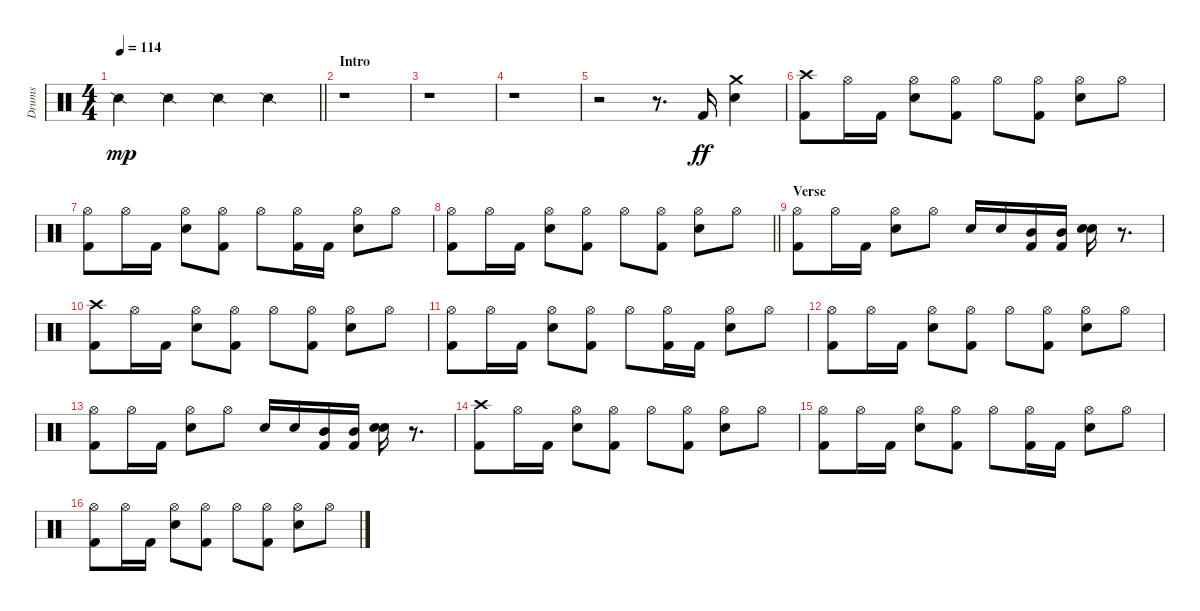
\track ("Drums               " "Drums     ") {instrument percussion}
\staff {score}
\articulation defaults
\ts (4 4)
\tempo 114
\clef neutral
\barLineRight lightlight
\ks c "Snare (side stick) 2".4{dy mp} "Snare (side stick) 2".4 "Snare (side stick) 2".4 "Snare (side stick) 2".4
|
\section ("" "Intro")
r.1 |
r.1 |
r.1 |
r.2 r.8{d} "Kick (hit) 2".16{dy ff} ("Electric Snare (hit)" "Crash medium (hit)").4 |
("Kick (hit) 2" "Crash high (hit)").8 "Hi-Hat (open)".16 "Kick (hit) 2".16 ("Hi-Hat (open)" "Electric Snare (hit)").8 ("Kick (hit) 2" "Hi-Hat (open)").8 "Hi-Hat (open)".8 ("Kick (hit) 2" "Hi-Hat (open)").8 ("Hi-Hat (open)" "Electric Snare (hit)").8 "Hi-Hat (open)".8 |
("Kick (hit) 2" "Hi-Hat (open)").8 "Hi-Hat (open)".16 "Kick (hit) 2".16 ("Hi-Hat (open)" "Electric Snare (hit)").8 ("Kick (hit) 2" "Hi-Hat (open)").8 "Hi-Hat (open)".8 ("Kick (hit) 2" "Hi-Hat (open)").16 "Kick (hit) 2".16 ("Hi-Hat (open)" "Electric Snare (hit)").8 "Hi-Hat (open)".8 |
\barLineRight lightlight
("Kick (hit) 2" "Hi-Hat (open)").8 "Hi-Hat (open)".16 "Kick (hit) 2".16 ("Hi-Hat (open)" "Electric Snare (hit)").8 ("Kick (hit) 2" "Hi-Hat (open)").8 "Hi-Hat (open)".8 ("Kick (hit) 2" "Hi-Hat (open)").8 ("Hi-Hat (open)" "Electric Snare (hit)").8 "Hi-Hat (open)".8 |
\section ("" "Verse")
("Kick (hit) 2" "Hi-Hat (open)").8 "Hi-Hat (open)".16 "Kick (hit) 2".16 ("Hi-Hat (open)" "Electric Snare (hit)").8 "Hi-Hat (open)".8 "Electric Snare (hit)".16 "Electric Snare (hit)".16 ("Kick (hit) 2" "Mid Tom (hit)").16 ("Kick (hit) 2" "Mid Tom (hit)").16 ("Metronome (bell)" "Electric Snare (hit)").16 r.8{d} |
("Kick (hit) 2" "Crash high (hit)").8 "Hi-Hat (open)".16 "Kick (hit) 2".16 ("Hi-Hat (open)" "Electric Snare (hit)").8 ("Kick (hit) 2" "Hi-Hat (open)").8 "Hi-Hat (open)".8 ("Kick (hit) 2" "Hi-Hat (open)").8 ("Hi-Hat (open)" "Electric Snare (hit)").8 "Hi-Hat (open)".8 |
("Kick (hit) 2" "Hi-Hat (open)").8 "Hi-Hat (open)".16 "Kick (hit) 2".16 ("Hi-Hat (open)" "Electric Snare (hit)").8 ("Kick (hit) 2" "Hi-Hat (open)").8 "Hi-Hat (open)".8 ("Kick (hit) 2" "Hi-Hat (open)").16 "Kick (hit) 2".16 ("Hi-Hat (open)" "Electric Snare (hit)").8 "Hi-Hat (open)".8 |
("Kick (hit) 2" "Hi-Hat (open)").8 "Hi-Hat (open)".16 "Kick (hit) 2".16 ("Hi-Hat (open)" "Electric Snare (hit)").8 ("Kick (hit) 2" "Hi-Hat (open)").8 "Hi-Hat (open)".8 ("Kick (hit) 2" "Hi-Hat (open)").8 ("Hi-Hat (open)" "Electric Snare (hit)").8 "Hi-Hat (open)".8 |
("Kick (hit) 2" "Hi-Hat (open)").8 "Hi-Hat (open)".16 "Kick (hit) 2".16 ("Hi-Hat (open)" "Electric Snare (hit)").8 "Hi-Hat (open)".8 "Electric Snare (hit)".16 "Electric Snare (hit)".16 ("Kick (hit) 2" "Mid Tom (hit)").16 ("Kick (hit) 2" "Mid Tom (hit)").16 ("Metronome (bell)" "Electric Snare (hit)").16 r.8{d} |
("Kick (hit) 2" "Crash high (hit)").8 "Hi-Hat (open)".16 "Kick (hit) 2".16 ("Hi-Hat (open)" "Electric Snare (hit)").8 ("Kick (hit) 2" "Hi-Hat (open)").8 "Hi-Hat (open)".8 ("Kick (hit) 2" "Hi-Hat (open)").8 ("Hi-Hat (open)" "Electric Snare (hit)").8 "Hi-Hat (open)".8 |
("Kick (hit) 2" "Hi-Hat (open)").8 "Hi-Hat (open)".16 "Kick (hit) 2".16 ("Hi-Hat (open)" "Electric Snare (hit)").8 ("Kick (hit) 2" "Hi-Hat (open)").8 "Hi-Hat (open)".8 ("Kick (hit) 2" "Hi-Hat (open)").16 "Kick (hit) 2".16 ("Hi-Hat (open)" "Electric Snare (hit)").8 "Hi-Hat (open)".8 |
("Kick (hit) 2" "Hi-Hat (open)").8 "Hi-Hat (open)".16 "Kick (hit) 2".16 ("Hi-Hat (open)" "Electric Snare (hit)").8 ("Kick (hit) 2" "Hi-Hat (open)").8 "Hi-Hat (open)".8 ("Kick (hit) 2" "Hi-Hat (open)").8 ("Hi-Hat (open)" "Electric Snare (hit)").8 "Hi-Hat (open)".8
